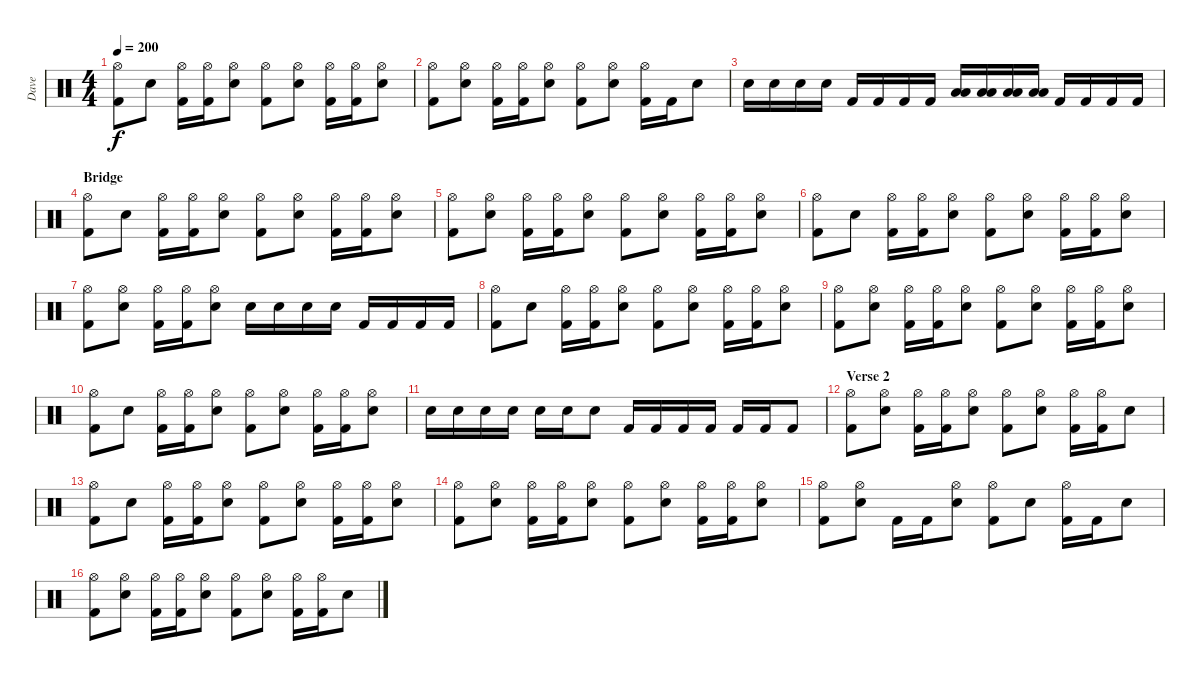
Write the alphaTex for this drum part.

\track ("Dave" "Dave") {instrument percussion}
\staff {score}
\articulation defaults
\ts (4 4)
\tempo 200
\clef neutral
\ks c
("Hi-Hat (open)" "Kick (hit) 2").8{dy f} "Snare (hit) 2".8 ("Hi-Hat (open)" "Kick (hit) 2").16 ("Hi-Hat (open)" "Kick (hit) 2").16 ("Hi-Hat (open)" "Snare (hit) 2").8 ("Hi-Hat (open)" "Kick (hit) 2").8 ("Hi-Hat (open)" "Snare (hit) 2").8 ("Hi-Hat (open)" "Kick (hit) 2").16 ("Hi-Hat (open)" "Kick (hit) 2").16 ("Hi-Hat (open)" "Snare (hit) 2").8 |
("Hi-Hat (open)" "Kick (hit) 2").8 ("Hi-Hat (open)" "Snare (hit) 2").8 ("Hi-Hat (open)" "Kick (hit) 2").16 ("Hi-Hat (open)" "Kick (hit) 2").16 ("Hi-Hat (open)" "Snare (hit) 2").8 ("Hi-Hat (open)" "Kick (hit) 2").8 ("Hi-Hat (open)" "Snare (hit) 2").8 ("Hi-Hat (open)" "Kick (hit) 2").16 "Kick (hit) 2".16 "Snare (hit) 2".8 |
"Snare (hit) 2".16 "Snare (hit) 2".16 "Snare (hit) 2".16 "Snare (hit) 2".16 "Kick (hit) 2".16 "Kick (hit) 2".16 "Kick (hit) 2".16 "Kick (hit) 2".16 ("Low Floor Tom (hit)" "Low Floor Tom (hit)").16 ("Low Floor Tom (hit)" "Low Floor Tom (hit)").16 ("Low Floor Tom (hit)" "Low Floor Tom (hit)").16 ("Low Floor Tom (hit)" "Low Floor Tom (hit)").16 "Kick (hit) 2".16 "Kick (hit) 2".16 "Kick (hit) 2".16 "Kick (hit) 2".16 |
\section ("" "Bridge")
("Hi-Hat (open)" "Kick (hit) 2").8 "Snare (hit) 2".8 ("Hi-Hat (open)" "Kick (hit) 2").16 ("Hi-Hat (open)" "Kick (hit) 2").16 ("Hi-Hat (open)" "Snare (hit) 2").8 ("Hi-Hat (open)" "Kick (hit) 2").8 ("Hi-Hat (open)" "Snare (hit) 2").8 ("Hi-Hat (open)" "Kick (hit) 2").16 ("Hi-Hat (open)" "Kick (hit) 2").16 ("Hi-Hat (open)" "Snare (hit) 2").8 |
("Hi-Hat (open)" "Kick (hit) 2").8 ("Hi-Hat (open)" "Snare (hit) 2").8 ("Hi-Hat (open)" "Kick (hit) 2").16 ("Hi-Hat (open)" "Kick (hit) 2").16 ("Hi-Hat (open)" "Snare (hit) 2").8 ("Hi-Hat (open)" "Kick (hit) 2").8 ("Hi-Hat (open)" "Snare (hit) 2").8 ("Hi-Hat (open)" "Kick (hit) 2").16 ("Hi-Hat (open)" "Kick (hit) 2").16 ("Hi-Hat (open)" "Snare (hit) 2").8 |
("Hi-Hat (open)" "Kick (hit) 2").8 "Snare (hit) 2".8 ("Hi-Hat (open)" "Kick (hit) 2").16 ("Hi-Hat (open)" "Kick (hit) 2").16 ("Hi-Hat (open)" "Snare (hit) 2").8 ("Hi-Hat (open)" "Kick (hit) 2").8 ("Hi-Hat (open)" "Snare (hit) 2").8 ("Hi-Hat (open)" "Kick (hit) 2").16 ("Hi-Hat (open)" "Kick (hit) 2").16 ("Hi-Hat (open)" "Snare (hit) 2").8 |
("Hi-Hat (open)" "Kick (hit) 2").8 ("Hi-Hat (open)" "Snare (hit) 2").8 ("Hi-Hat (open)" "Kick (hit) 2").16 ("Hi-Hat (open)" "Kick (hit) 2").16 ("Hi-Hat (open)" "Snare (hit) 2").8 "Snare (hit) 2".16 "Snare (hit) 2".16 "Snare (hit) 2".16 "Snare (hit) 2".16 "Kick (hit) 2".16 "Kick (hit) 2".16 "Kick (hit) 2".16 "Kick (hit) 2".16 |
("Hi-Hat (open)" "Kick (hit) 2").8 "Snare (hit) 2".8 ("Hi-Hat (open)" "Kick (hit) 2").16 ("Hi-Hat (open)" "Kick (hit) 2").16 ("Hi-Hat (open)" "Snare (hit) 2").8 ("Hi-Hat (open)" "Kick (hit) 2").8 ("Hi-Hat (open)" "Snare (hit) 2").8 ("Hi-Hat (open)" "Kick (hit) 2").16 ("Hi-Hat (open)" "Kick (hit) 2").16 ("Hi-Hat (open)" "Snare (hit) 2").8 |
("Hi-Hat (open)" "Kick (hit) 2").8 ("Hi-Hat (open)" "Snare (hit) 2").8 ("Hi-Hat (open)" "Kick (hit) 2").16 ("Hi-Hat (open)" "Kick (hit) 2").16 ("Hi-Hat (open)" "Snare (hit) 2").8 ("Hi-Hat (open)" "Kick (hit) 2").8 ("Hi-Hat (open)" "Snare (hit) 2").8 ("Hi-Hat (open)" "Kick (hit) 2").16 ("Hi-Hat (open)" "Kick (hit) 2").16 ("Hi-Hat (open)" "Snare (hit) 2").8 |
("Hi-Hat (open)" "Kick (hit) 2").8 "Snare (hit) 2".8 ("Hi-Hat (open)" "Kick (hit) 2").16 ("Hi-Hat (open)" "Kick (hit) 2").16 ("Hi-Hat (open)" "Snare (hit) 2").8 ("Hi-Hat (open)" "Kick (hit) 2").8 ("Hi-Hat (open)" "Snare (hit) 2").8 ("Hi-Hat (open)" "Kick (hit) 2").16 ("Hi-Hat (open)" "Kick (hit) 2").16 ("Hi-Hat (open)" "Snare (hit) 2").8 |
"Snare (hit) 2".16 "Snare (hit) 2".16 "Snare (hit) 2".16 "Snare (hit) 2".16 "Snare (hit) 2".16 "Snare (hit) 2".16 "Snare (hit) 2".8 "Kick (hit) 2".16 "Kick (hit) 2".16 "Kick (hit) 2".16 "Kick (hit) 2".16 "Kick (hit) 2".16 "Kick (hit) 2".16 "Kick (hit) 2".8 |
\section ("" "Verse 2")
("Hi-Hat (open)" "Kick (hit) 2").8 ("Hi-Hat (open)" "Snare (hit) 2").8 ("Hi-Hat (open)" "Kick (hit) 2").16 ("Hi-Hat (open)" "Kick (hit) 2").16 ("Hi-Hat (open)" "Snare (hit) 2").8 ("Hi-Hat (open)" "Kick (hit) 2").8 ("Hi-Hat (open)" "Snare (hit) 2").8 ("Hi-Hat (open)" "Kick (hit) 2").16 ("Hi-Hat (open)" "Kick (hit) 2").16 "Snare (hit) 2".8 |
("Hi-Hat (open)" "Kick (hit) 2").8 "Snare (hit) 2".8 ("Hi-Hat (open)" "Kick (hit) 2").16 ("Hi-Hat (open)" "Kick (hit) 2").16 ("Hi-Hat (open)" "Snare (hit) 2").8 ("Hi-Hat (open)" "Kick (hit) 2").8 ("Hi-Hat (open)" "Snare (hit) 2").8 ("Hi-Hat (open)" "Kick (hit) 2").16 ("Hi-Hat (open)" "Kick (hit) 2").16 ("Hi-Hat (open)" "Snare (hit) 2").8 |
("Hi-Hat (open)" "Kick (hit) 2").8 ("Hi-Hat (open)" "Snare (hit) 2").8 ("Hi-Hat (open)" "Kick (hit) 2").16 ("Hi-Hat (open)" "Kick (hit) 2").16 ("Hi-Hat (open)" "Snare (hit) 2").8 ("Hi-Hat (open)" "Kick (hit) 2").8 ("Hi-Hat (open)" "Snare (hit) 2").8 ("Hi-Hat (open)" "Kick (hit) 2").16 ("Hi-Hat (open)" "Kick (hit) 2").16 ("Hi-Hat (open)" "Snare (hit) 2").8 |
("Hi-Hat (open)" "Kick (hit) 2").8 ("Hi-Hat (open)" "Snare (hit) 2").8 "Kick (hit) 2".16 "Kick (hit) 2".16 ("Hi-Hat (open)" "Snare (hit) 2").8 ("Hi-Hat (open)" "Kick (hit) 2").8 "Snare (hit) 2".8 ("Hi-Hat (open)" "Kick (hit) 2").16 "Kick (hit) 2".16 "Snare (hit) 2".8 |
("Hi-Hat (open)" "Kick (hit) 2").8 ("Hi-Hat (open)" "Snare (hit) 2").8 ("Hi-Hat (open)" "Kick (hit) 2").16 ("Hi-Hat (open)" "Kick (hit) 2").16 ("Hi-Hat (open)" "Snare (hit) 2").8 ("Hi-Hat (open)" "Kick (hit) 2").8 ("Hi-Hat (open)" "Snare (hit) 2").8 ("Hi-Hat (open)" "Kick (hit) 2").16 ("Hi-Hat (open)" "Kick (hit) 2").16 "Snare (hit) 2".8
